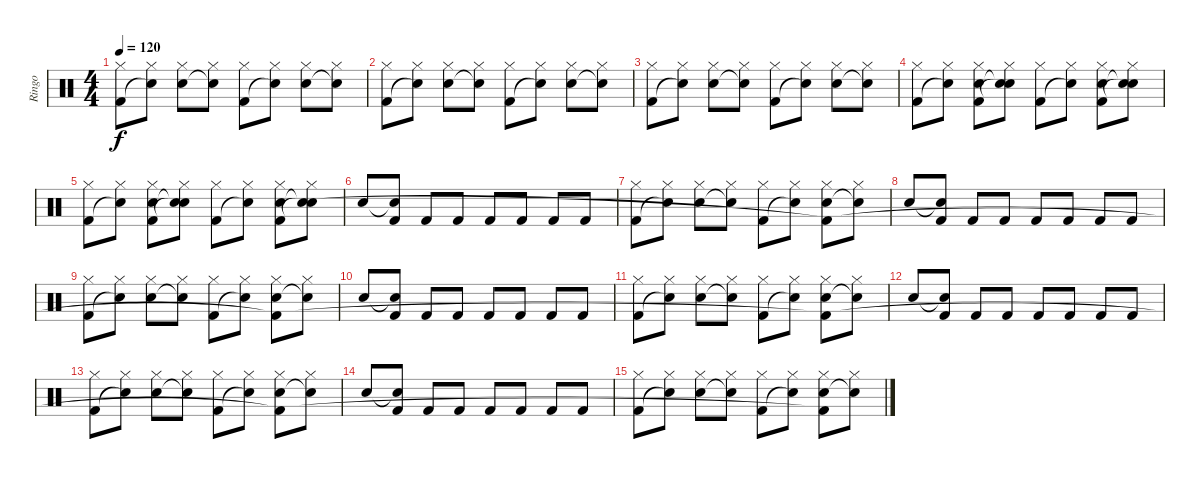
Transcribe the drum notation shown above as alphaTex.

\track ("Ringo" "Ringo") {instrument percussion}
\staff {score}
\articulation defaults
\ts (4 4)
\tempo 120
\clef neutral
\ks c
("Hi-Hat (closed)" "Kick (hit) 2").8{dy f} ("Hi-Hat (closed)" "Snare (hit)"{t}).8 ("Hi-Hat (closed)" "Snare (hit) 2").8 ("Hi-Hat (closed)" "Snare (hit)"{t}).8 ("Hi-Hat (closed)" "Kick (hit) 2").8 ("Hi-Hat (closed)" "Snare (hit)"{t}).8 ("Hi-Hat (closed)" "Snare (hit) 2").8 ("Hi-Hat (closed)" "Snare (hit)"{t}).8 |
("Hi-Hat (closed)" "Kick (hit) 2").8 ("Hi-Hat (closed)" "Snare (hit)"{t}).8 ("Hi-Hat (closed)" "Snare (hit) 2").8 ("Hi-Hat (closed)" "Snare (hit)"{t}).8 ("Hi-Hat (closed)" "Kick (hit) 2").8 ("Hi-Hat (closed)" "Snare (hit)"{t}).8 ("Hi-Hat (closed)" "Snare (hit) 2").8 ("Hi-Hat (closed)" "Snare (hit)"{t}).8 |
("Hi-Hat (closed)" "Kick (hit) 2").8 ("Hi-Hat (closed)" "Snare (hit)"{t}).8 ("Hi-Hat (closed)" "Snare (hit) 2").8 ("Hi-Hat (closed)" "Snare (hit)"{t}).8 ("Hi-Hat (closed)" "Kick (hit) 2").8 ("Hi-Hat (closed)" "Snare (hit)"{t}).8 ("Hi-Hat (closed)" "Snare (hit) 2").8 ("Hi-Hat (closed)" "Snare (hit)"{t}).8 |
("Hi-Hat (closed)" "Kick (hit) 2").8 ("Hi-Hat (closed)" "Snare (hit)"{t}).8 ("Hi-Hat (closed)" "Snare (hit) 2" "Kick (hit) 2").8 ("Hi-Hat (closed)" "Snare (hit)"{t} "Snare (hit)"{t}).8 ("Hi-Hat (closed)" "Kick (hit) 2").8 ("Hi-Hat (closed)" "Snare (hit)"{t}).8 ("Hi-Hat (closed)" "Snare (hit) 2" "Kick (hit) 2").8 ("Hi-Hat (closed)" "Snare (hit)"{t} "Snare (hit)"{t}).8 |
("Hi-Hat (closed)" "Kick (hit) 2").8 ("Hi-Hat (closed)" "Snare (hit)"{t}).8 ("Hi-Hat (closed)" "Snare (hit) 2" "Kick (hit) 2").8 ("Hi-Hat (closed)" "Snare (hit)"{t} "Snare (hit)"{t}).8 ("Hi-Hat (closed)" "Kick (hit) 2").8 ("Hi-Hat (closed)" "Snare (hit)"{t}).8 ("Hi-Hat (closed)" "Snare (hit) 2" "Kick (hit) 2").8 ("Hi-Hat (closed)" "Snare (hit)"{t} "Snare (hit)"{t}).8 |
"Snare (hit) 2".8 ("Snare (hit)"{t} "Kick (hit) 2").8 "Kick (hit) 2".8 "Kick (hit) 2".8 "Kick (hit) 2".8 "Kick (hit) 2".8 "Kick (hit) 2".8 "Kick (hit) 2".8 |
("Hi-Hat (closed)" "Kick (hit) 2").8 ("Hi-Hat (closed)" "Snare (hit)"{t}).8 ("Hi-Hat (closed)" "Snare (hit) 2").8 ("Hi-Hat (closed)" "Snare (hit)"{t}).8 ("Hi-Hat (closed)" "Kick (hit) 2").8 ("Hi-Hat (closed)" "Snare (hit)"{t}).8 ("Hi-Hat (closed)" "Snare (hit) 2" "Kick (hit) 2"{t}).8 ("Hi-Hat (closed)" "Snare (hit)"{t}).8 |
"Snare (hit) 2".8 ("Snare (hit)"{t} "Kick (hit) 2").8 "Kick (hit) 2".8 "Kick (hit) 2".8 "Kick (hit) 2".8 "Kick (hit) 2".8 "Kick (hit) 2".8 "Kick (hit) 2".8 |
("Hi-Hat (closed)" "Kick (hit) 2").8 ("Hi-Hat (closed)" "Snare (hit)"{t}).8 ("Hi-Hat (closed)" "Snare (hit) 2").8 ("Hi-Hat (closed)" "Snare (hit)"{t}).8 ("Hi-Hat (closed)" "Kick (hit) 2").8 ("Hi-Hat (closed)" "Snare (hit)"{t}).8 ("Hi-Hat (closed)" "Snare (hit) 2" "Kick (hit) 2"{t}).8 ("Hi-Hat (closed)" "Snare (hit)"{t}).8 |
"Snare (hit) 2".8{volume 11} ("Snare (hit)"{t} "Kick (hit) 2").8 "Kick (hit) 2".8 "Kick (hit) 2".8 "Kick (hit) 2".8 "Kick (hit) 2".8 "Kick (hit) 2".8 "Kick (hit) 2".8 |
("Hi-Hat (closed)" "Kick (hit) 2").8 ("Hi-Hat (closed)" "Snare (hit)"{t}).8 ("Hi-Hat (closed)" "Snare (hit) 2").8 ("Hi-Hat (closed)" "Snare (hit)"{t}).8 ("Hi-Hat (closed)" "Kick (hit) 2").8 ("Hi-Hat (closed)" "Snare (hit)"{t}).8 ("Hi-Hat (closed)" "Snare (hit) 2" "Kick (hit) 2"{t}).8 ("Hi-Hat (closed)" "Snare (hit)"{t}).8 |
"Snare (hit) 2".8{volume 9} ("Snare (hit)"{t} "Kick (hit) 2").8 "Kick (hit) 2".8 "Kick (hit) 2".8 "Kick (hit) 2".8 "Kick (hit) 2".8 "Kick (hit) 2".8 "Kick (hit) 2".8 |
("Hi-Hat (closed)" "Kick (hit) 2").8 ("Hi-Hat (closed)" "Snare (hit)"{t}).8 ("Hi-Hat (closed)" "Snare (hit) 2").8 ("Hi-Hat (closed)" "Snare (hit)"{t}).8 ("Hi-Hat (closed)" "Kick (hit) 2").8 ("Hi-Hat (closed)" "Snare (hit)"{t}).8 ("Hi-Hat (closed)" "Snare (hit) 2" "Kick (hit) 2"{t}).8 ("Hi-Hat (closed)" "Snare (hit)"{t}).8 |
"Snare (hit) 2".8{volume 6} ("Snare (hit)"{t} "Kick (hit) 2").8 "Kick (hit) 2".8 "Kick (hit) 2".8 "Kick (hit) 2".8 "Kick (hit) 2".8 "Kick (hit) 2".8 "Kick (hit) 2".8 |
("Hi-Hat (closed)" "Kick (hit) 2").8 ("Hi-Hat (closed)" "Snare (hit)"{t}).8 ("Hi-Hat (closed)" "Snare (hit) 2").8 ("Hi-Hat (closed)" "Snare (hit)"{t}).8 ("Hi-Hat (closed)" "Kick (hit) 2").8 ("Hi-Hat (closed)" "Snare (hit)"{t}).8 ("Hi-Hat (closed)" "Snare (hit) 2" "Kick (hit) 2"{t}).8 ("Hi-Hat (closed)" "Snare (hit)"{t}).8
